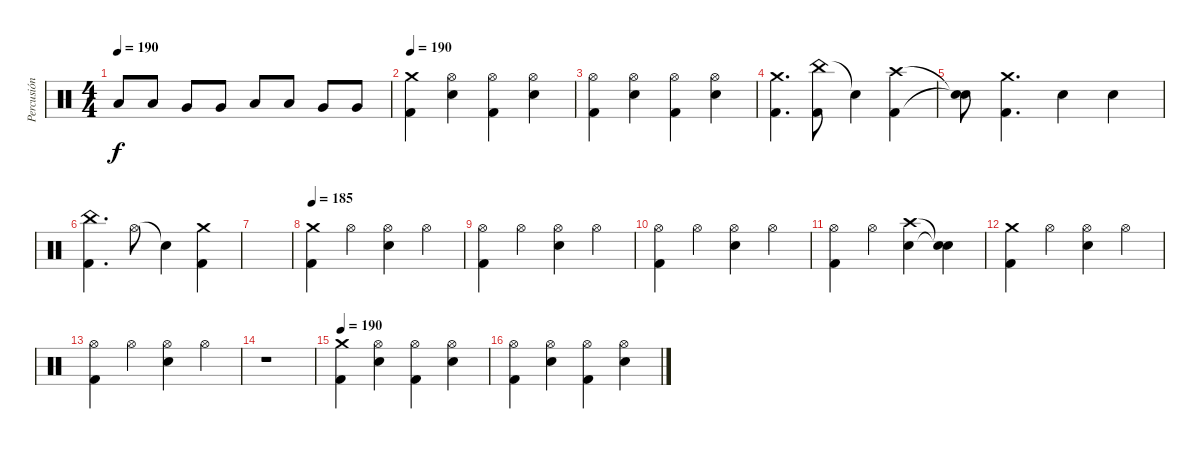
\track ("Percusión" "Percusión") {instrument percussion}
\staff {score}
\articulation defaults
\ts (4 4)
\tempo 190
\clef neutral
\ks c "Low Tom (hit)".8{dy f} "Low Tom (hit)".8 "Very Low Tom (hit)".8 "Very Low Tom (hit)".8 "Low Floor Tom (hit)".8 "Low Floor Tom (hit)".8 "Very Low Tom (hit)".8 "Very Low Tom (hit)".8
|
\tempo 190
("Crash medium (hit)" "Kick (hit) 2").4 ("Hi-Hat (open)" "Electric Snare (hit)").4 ("Hi-Hat (open)" "Kick (hit) 2").4 ("Hi-Hat (open)" "Electric Snare (hit)").4 |
("Hi-Hat (open)" "Kick (hit) 2").4 ("Hi-Hat (open)" "Electric Snare (hit)").4 ("Hi-Hat (open)" "Kick (hit) 2").4 ("Hi-Hat (open)" "Electric Snare (hit)").4 |
("Crash medium (hit)" "Kick (hit) 2").4{d} ("China (hit)" "Kick (hit) 2").8 "Snare (hit)"{t}.4 ("Crash high (hit)" "Kick (hit) 2").4 |
("Snare (hit)"{t} "Snare (hit)"{t}).8 ("Crash medium (hit)" "Kick (hit) 2").4{d} "Electric Snare (hit)".4 "Electric Snare (hit)".4 |
("China (hit)" "Kick (hit) 2").4{d} "Hi-Hat (open)".8 "Snare (hit)"{t}.4 ("Crash medium (hit)" "Kick (hit) 2").4 |
|
\tempo 185
("Crash medium (hit)" "Kick (hit) 2").4 "Hi-Hat (open)".4 ("Hi-Hat (open)" "Electric Snare (hit)").4 "Hi-Hat (open)".4 |
("Hi-Hat (open)" "Kick (hit) 2").4 "Hi-Hat (open)".4 ("Hi-Hat (open)" "Electric Snare (hit)").4 "Hi-Hat (open)".4 |
("Hi-Hat (open)" "Kick (hit) 2").4 "Hi-Hat (open)".4 ("Hi-Hat (open)" "Electric Snare (hit)").4 "Hi-Hat (open)".4 |
("Hi-Hat (open)" "Kick (hit) 2").4 "Hi-Hat (open)".4 ("Crash high (hit)" "Electric Snare (hit)").4 ("Snare (hit)"{t} "Snare (hit)"{t}).4 |
("Crash medium (hit)" "Kick (hit) 2").4 "Hi-Hat (open)".4 ("Hi-Hat (open)" "Electric Snare (hit)").4 "Hi-Hat (open)".4 |
("Hi-Hat (open)" "Kick (hit) 2").4 "Hi-Hat (open)".4 ("Hi-Hat (open)" "Electric Snare (hit)").4 "Hi-Hat (open)".4 |
r.1 |
\tempo 190
("Crash medium (hit)" "Kick (hit) 2").4 ("Hi-Hat (open)" "Electric Snare (hit)").4 ("Hi-Hat (open)" "Kick (hit) 2").4 ("Hi-Hat (open)" "Electric Snare (hit)").4 |
("Hi-Hat (open)" "Kick (hit) 2").4 ("Hi-Hat (open)" "Electric Snare (hit)").4 ("Hi-Hat (open)" "Kick (hit) 2").4 ("Hi-Hat (open)" "Electric Snare (hit)").4
